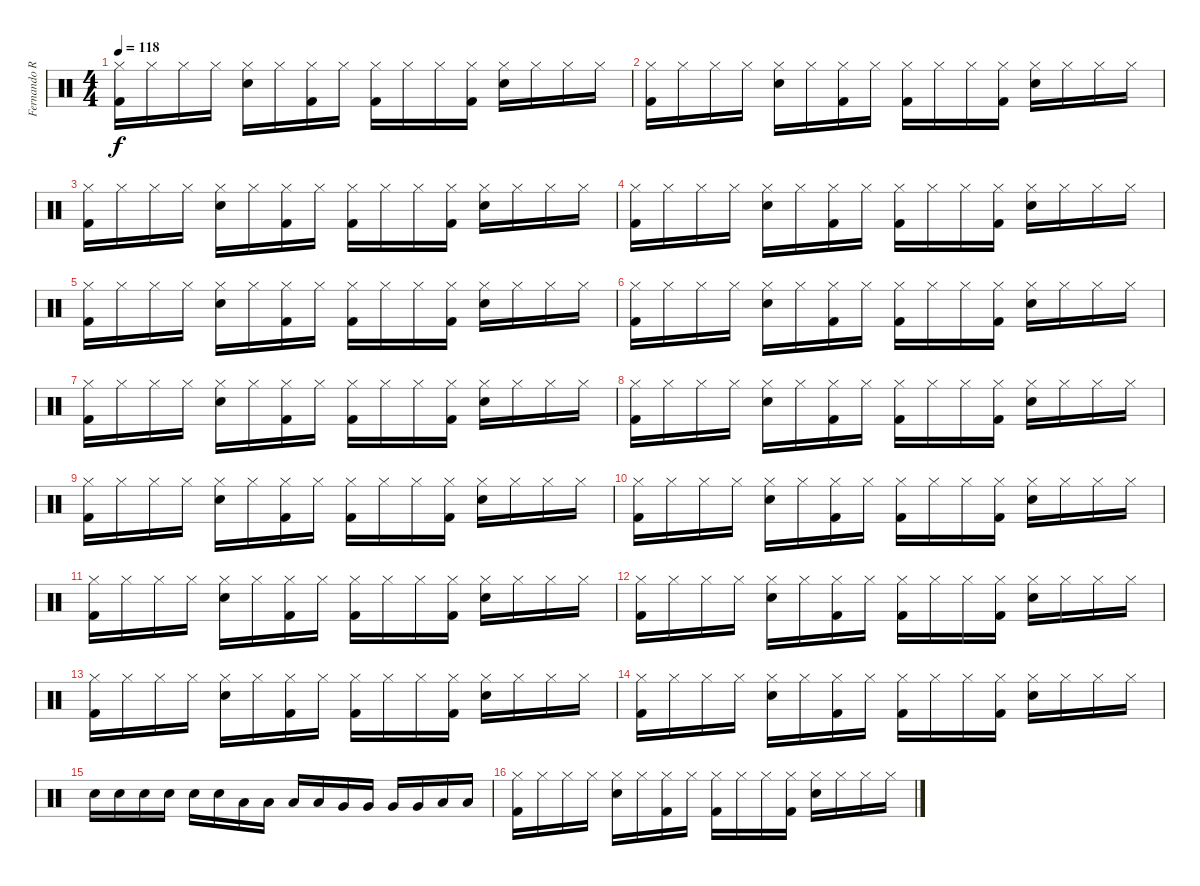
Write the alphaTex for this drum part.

\track ("Fernando Ricciardi" "Fernando R") {instrument percussion}
\staff {score}
\articulation defaults
\ts (4 4)
\tempo 118
\clef neutral
\ks c
("Hi-Hat (closed)" "Kick (hit) 2").16{dy f} "Hi-Hat (closed)".16 "Hi-Hat (closed)".16 "Hi-Hat (closed)".16 ("Hi-Hat (closed)" "Snare (hit) 2").16 "Hi-Hat (closed)".16 ("Hi-Hat (closed)" "Kick (hit) 2").16 "Hi-Hat (closed)".16 ("Hi-Hat (closed)" "Kick (hit) 2").16 "Hi-Hat (closed)".16 "Hi-Hat (closed)".16 ("Hi-Hat (closed)" "Kick (hit) 2").16 ("Hi-Hat (closed)" "Snare (hit) 2").16 "Hi-Hat (closed)".16 "Hi-Hat (closed)".16 "Hi-Hat (closed)".16 |
("Hi-Hat (closed)" "Kick (hit) 2").16 "Hi-Hat (closed)".16 "Hi-Hat (closed)".16 "Hi-Hat (closed)".16 ("Hi-Hat (closed)" "Snare (hit) 2").16 "Hi-Hat (closed)".16 ("Hi-Hat (closed)" "Kick (hit) 2").16 "Hi-Hat (closed)".16 ("Hi-Hat (closed)" "Kick (hit) 2").16 "Hi-Hat (closed)".16 "Hi-Hat (closed)".16 ("Hi-Hat (closed)" "Kick (hit) 2").16 ("Hi-Hat (closed)" "Snare (hit) 2").16 "Hi-Hat (closed)".16 "Hi-Hat (closed)".16 "Hi-Hat (closed)".16 |
("Hi-Hat (closed)" "Kick (hit) 2").16 "Hi-Hat (closed)".16 "Hi-Hat (closed)".16 "Hi-Hat (closed)".16 ("Hi-Hat (closed)" "Snare (hit) 2").16 "Hi-Hat (closed)".16 ("Hi-Hat (closed)" "Kick (hit) 2").16 "Hi-Hat (closed)".16 ("Hi-Hat (closed)" "Kick (hit) 2").16 "Hi-Hat (closed)".16 "Hi-Hat (closed)".16 ("Hi-Hat (closed)" "Kick (hit) 2").16 ("Hi-Hat (closed)" "Snare (hit) 2").16 "Hi-Hat (closed)".16 "Hi-Hat (closed)".16 "Hi-Hat (closed)".16 |
("Hi-Hat (closed)" "Kick (hit) 2").16 "Hi-Hat (closed)".16 "Hi-Hat (closed)".16 "Hi-Hat (closed)".16 ("Hi-Hat (closed)" "Snare (hit) 2").16 "Hi-Hat (closed)".16 ("Hi-Hat (closed)" "Kick (hit) 2").16 "Hi-Hat (closed)".16 ("Hi-Hat (closed)" "Kick (hit) 2").16 "Hi-Hat (closed)".16 "Hi-Hat (closed)".16 ("Hi-Hat (closed)" "Kick (hit) 2").16 ("Hi-Hat (closed)" "Snare (hit) 2").16 "Hi-Hat (closed)".16 "Hi-Hat (closed)".16 "Hi-Hat (closed)".16 |
("Hi-Hat (closed)" "Kick (hit) 2").16 "Hi-Hat (closed)".16 "Hi-Hat (closed)".16 "Hi-Hat (closed)".16 ("Hi-Hat (closed)" "Snare (hit) 2").16 "Hi-Hat (closed)".16 ("Hi-Hat (closed)" "Kick (hit) 2").16 "Hi-Hat (closed)".16 ("Hi-Hat (closed)" "Kick (hit) 2").16 "Hi-Hat (closed)".16 "Hi-Hat (closed)".16 ("Hi-Hat (closed)" "Kick (hit) 2").16 ("Hi-Hat (closed)" "Snare (hit) 2").16 "Hi-Hat (closed)".16 "Hi-Hat (closed)".16 "Hi-Hat (closed)".16 |
("Hi-Hat (closed)" "Kick (hit) 2").16 "Hi-Hat (closed)".16 "Hi-Hat (closed)".16 "Hi-Hat (closed)".16 ("Hi-Hat (closed)" "Snare (hit) 2").16 "Hi-Hat (closed)".16 ("Hi-Hat (closed)" "Kick (hit) 2").16 "Hi-Hat (closed)".16 ("Hi-Hat (closed)" "Kick (hit) 2").16 "Hi-Hat (closed)".16 "Hi-Hat (closed)".16 ("Hi-Hat (closed)" "Kick (hit) 2").16 ("Hi-Hat (closed)" "Snare (hit) 2").16 "Hi-Hat (closed)".16 "Hi-Hat (closed)".16 "Hi-Hat (closed)".16 |
("Hi-Hat (closed)" "Kick (hit) 2").16 "Hi-Hat (closed)".16 "Hi-Hat (closed)".16 "Hi-Hat (closed)".16 ("Hi-Hat (closed)" "Snare (hit) 2").16 "Hi-Hat (closed)".16 ("Hi-Hat (closed)" "Kick (hit) 2").16 "Hi-Hat (closed)".16 ("Hi-Hat (closed)" "Kick (hit) 2").16 "Hi-Hat (closed)".16 "Hi-Hat (closed)".16 ("Hi-Hat (closed)" "Kick (hit) 2").16 ("Hi-Hat (closed)" "Snare (hit) 2").16 "Hi-Hat (closed)".16 "Hi-Hat (closed)".16 "Hi-Hat (closed)".16 |
("Hi-Hat (closed)" "Kick (hit) 2").16 "Hi-Hat (closed)".16 "Hi-Hat (closed)".16 "Hi-Hat (closed)".16 ("Hi-Hat (closed)" "Snare (hit) 2").16 "Hi-Hat (closed)".16 ("Hi-Hat (closed)" "Kick (hit) 2").16 "Hi-Hat (closed)".16 ("Hi-Hat (closed)" "Kick (hit) 2").16 "Hi-Hat (closed)".16 "Hi-Hat (closed)".16 ("Hi-Hat (closed)" "Kick (hit) 2").16 ("Hi-Hat (closed)" "Snare (hit) 2").16 "Hi-Hat (closed)".16 "Hi-Hat (closed)".16 "Hi-Hat (closed)".16 |
("Hi-Hat (closed)" "Kick (hit) 2").16 "Hi-Hat (closed)".16 "Hi-Hat (closed)".16 "Hi-Hat (closed)".16 ("Hi-Hat (closed)" "Snare (hit) 2").16 "Hi-Hat (closed)".16 ("Hi-Hat (closed)" "Kick (hit) 2").16 "Hi-Hat (closed)".16 ("Hi-Hat (closed)" "Kick (hit) 2").16 "Hi-Hat (closed)".16 "Hi-Hat (closed)".16 ("Hi-Hat (closed)" "Kick (hit) 2").16 ("Hi-Hat (closed)" "Snare (hit) 2").16 "Hi-Hat (closed)".16 "Hi-Hat (closed)".16 "Hi-Hat (closed)".16 |
("Hi-Hat (closed)" "Kick (hit) 2").16 "Hi-Hat (closed)".16 "Hi-Hat (closed)".16 "Hi-Hat (closed)".16 ("Hi-Hat (closed)" "Snare (hit) 2").16 "Hi-Hat (closed)".16 ("Hi-Hat (closed)" "Kick (hit) 2").16 "Hi-Hat (closed)".16 ("Hi-Hat (closed)" "Kick (hit) 2").16 "Hi-Hat (closed)".16 "Hi-Hat (closed)".16 ("Hi-Hat (closed)" "Kick (hit) 2").16 ("Hi-Hat (closed)" "Snare (hit) 2").16 "Hi-Hat (closed)".16 "Hi-Hat (closed)".16 "Hi-Hat (closed)".16 |
("Hi-Hat (closed)" "Kick (hit) 2").16 "Hi-Hat (closed)".16 "Hi-Hat (closed)".16 "Hi-Hat (closed)".16 ("Hi-Hat (closed)" "Snare (hit) 2").16 "Hi-Hat (closed)".16 ("Hi-Hat (closed)" "Kick (hit) 2").16 "Hi-Hat (closed)".16 ("Hi-Hat (closed)" "Kick (hit) 2").16 "Hi-Hat (closed)".16 "Hi-Hat (closed)".16 ("Hi-Hat (closed)" "Kick (hit) 2").16 ("Hi-Hat (closed)" "Snare (hit) 2").16 "Hi-Hat (closed)".16 "Hi-Hat (closed)".16 "Hi-Hat (closed)".16 |
("Hi-Hat (closed)" "Kick (hit) 2").16 "Hi-Hat (closed)".16 "Hi-Hat (closed)".16 "Hi-Hat (closed)".16 ("Hi-Hat (closed)" "Snare (hit) 2").16 "Hi-Hat (closed)".16 ("Hi-Hat (closed)" "Kick (hit) 2").16 "Hi-Hat (closed)".16 ("Hi-Hat (closed)" "Kick (hit) 2").16 "Hi-Hat (closed)".16 "Hi-Hat (closed)".16 ("Hi-Hat (closed)" "Kick (hit) 2").16 ("Hi-Hat (closed)" "Snare (hit) 2").16 "Hi-Hat (closed)".16 "Hi-Hat (closed)".16 "Hi-Hat (closed)".16 |
("Hi-Hat (closed)" "Kick (hit) 2").16 "Hi-Hat (closed)".16 "Hi-Hat (closed)".16 "Hi-Hat (closed)".16 ("Hi-Hat (closed)" "Snare (hit) 2").16 "Hi-Hat (closed)".16 ("Hi-Hat (closed)" "Kick (hit) 2").16 "Hi-Hat (closed)".16 ("Hi-Hat (closed)" "Kick (hit) 2").16 "Hi-Hat (closed)".16 "Hi-Hat (closed)".16 ("Hi-Hat (closed)" "Kick (hit) 2").16 ("Hi-Hat (closed)" "Snare (hit) 2").16 "Hi-Hat (closed)".16 "Hi-Hat (closed)".16 "Hi-Hat (closed)".16 |
("Hi-Hat (closed)" "Kick (hit) 2").16 "Hi-Hat (closed)".16 "Hi-Hat (closed)".16 "Hi-Hat (closed)".16 ("Hi-Hat (closed)" "Snare (hit) 2").16 "Hi-Hat (closed)".16 ("Hi-Hat (closed)" "Kick (hit) 2").16 "Hi-Hat (closed)".16 ("Hi-Hat (closed)" "Kick (hit) 2").16 "Hi-Hat (closed)".16 "Hi-Hat (closed)".16 ("Hi-Hat (closed)" "Kick (hit) 2").16 ("Hi-Hat (closed)" "Snare (hit) 2").16 "Hi-Hat (closed)".16 "Hi-Hat (closed)".16 "Hi-Hat (closed)".16 |
"Snare (hit) 2".16 "Snare (hit) 2".16 "Snare (hit) 2".16 "Snare (hit) 2".16 "Snare (hit) 2".16 "Snare (hit) 2".16 "Low Floor Tom (hit)".16 "Low Floor Tom (hit)".16 "Low Floor Tom (hit)".16 "Low Floor Tom (hit)".16 "Very Low Tom (hit)".16 "Very Low Tom (hit)".16 "Very Low Tom (hit)".16 "Very Low Tom (hit)".16 "Low Tom (hit)".16 "Low Tom (hit)".16 |
("Hi-Hat (closed)" "Kick (hit) 2").16 "Hi-Hat (closed)".16 "Hi-Hat (closed)".16 "Hi-Hat (closed)".16 ("Hi-Hat (closed)" "Snare (hit) 2").16 "Hi-Hat (closed)".16 ("Hi-Hat (closed)" "Kick (hit) 2").16 "Hi-Hat (closed)".16 ("Hi-Hat (closed)" "Kick (hit) 2").16 "Hi-Hat (closed)".16 "Hi-Hat (closed)".16 ("Hi-Hat (closed)" "Kick (hit) 2").16 ("Hi-Hat (closed)" "Snare (hit) 2").16 "Hi-Hat (closed)".16 "Hi-Hat (closed)".16 "Hi-Hat (closed)".16
